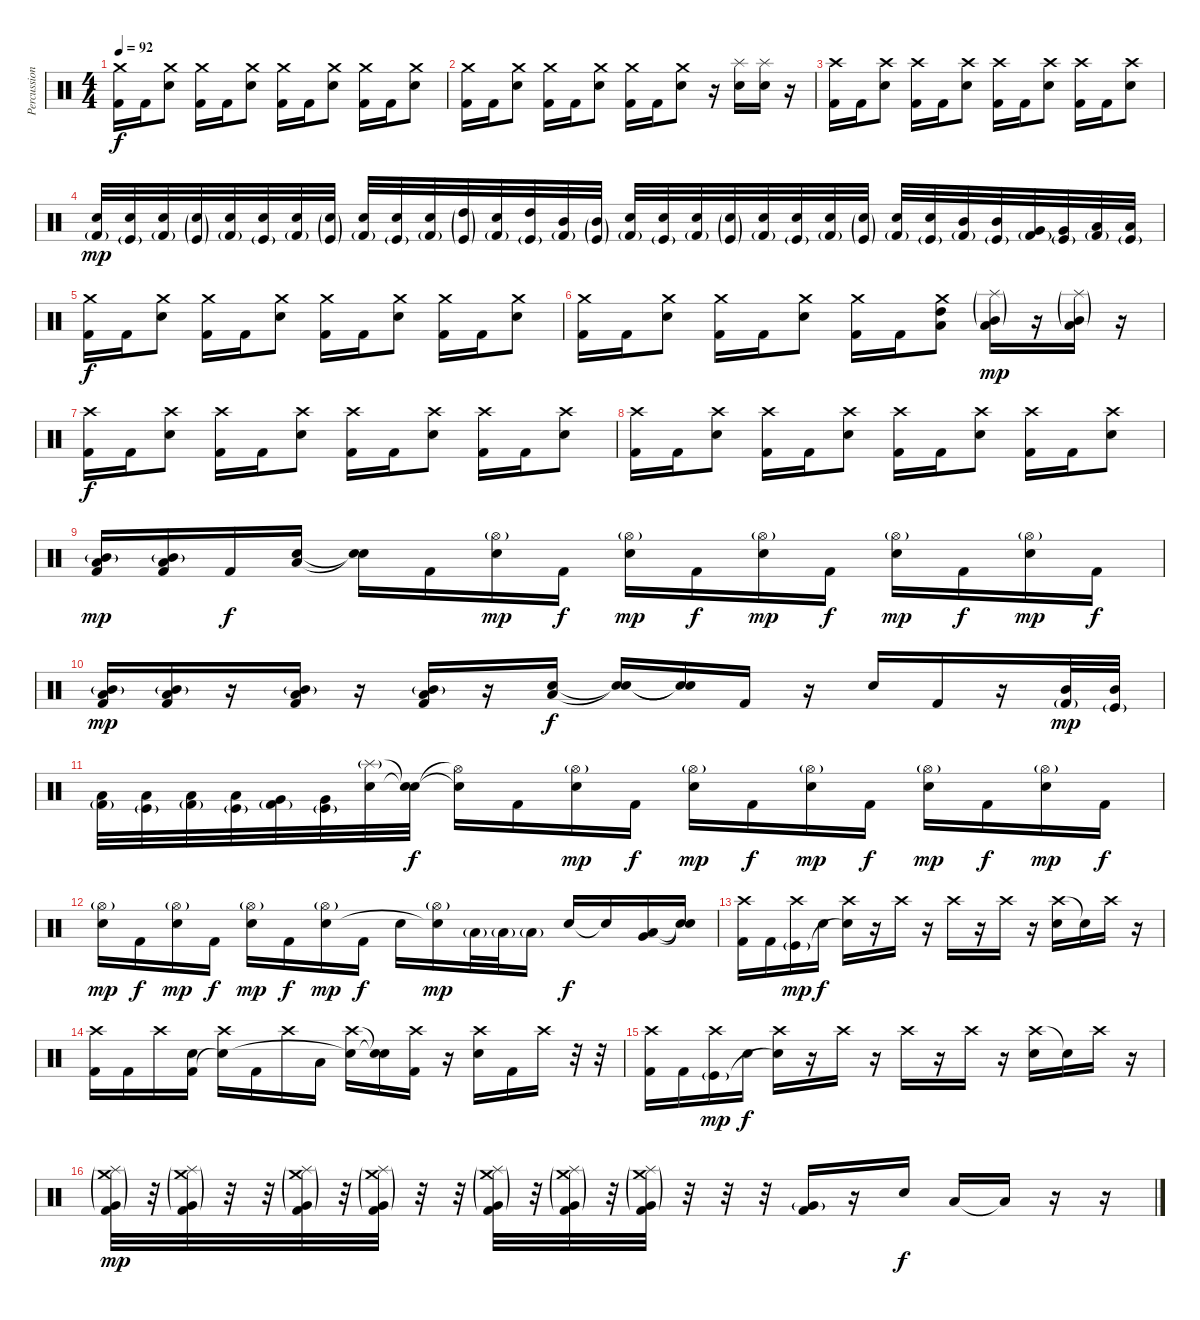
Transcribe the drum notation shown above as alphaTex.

\track ("Percussion" "Percussion") {instrument percussion}
\staff {score}
\articulation defaults
\ts (4 4)
\tempo 92
\clef neutral
\ks c
("Crash medium (hit)" "Kick (hit) 2").16{dy f} "Kick (hit) 2".16 ("Crash medium (hit)" "Snare (hit) 2").8 ("Crash medium (hit)" "Kick (hit) 2").16 "Kick (hit) 2".16 ("Crash medium (hit)" "Snare (hit) 2").8 ("Crash medium (hit)" "Kick (hit) 2").16 "Kick (hit) 2".16 ("Crash medium (hit)" "Snare (hit) 2").8 ("Crash medium (hit)" "Kick (hit) 2").16 "Kick (hit) 2".16 ("Crash medium (hit)" "Snare (hit) 2").8 |
("Crash medium (hit)" "Kick (hit) 2").16 "Kick (hit) 2".16 ("Crash medium (hit)" "Snare (hit) 2").8 ("Crash medium (hit)" "Kick (hit) 2").16 "Kick (hit) 2".16 ("Crash medium (hit)" "Snare (hit) 2").8 ("Crash medium (hit)" "Kick (hit) 2").16 "Kick (hit) 2".16 ("Crash medium (hit)" "Snare (hit) 2").8 r.16 ("Splash (hit)" "Snare (hit) 2").16 ("Splash (hit)" "Snare (hit) 2").16 r.16 |
("Crash high (hit)" "Kick (hit) 2").16 "Kick (hit) 2".16 ("Crash high (hit)" "Snare (hit) 2").8 ("Crash high (hit)" "Kick (hit) 2").16 "Kick (hit) 2".16 ("Crash high (hit)" "Snare (hit) 2").8 ("Crash high (hit)" "Kick (hit) 2").16 "Kick (hit) 2".16 ("Crash high (hit)" "Snare (hit) 2").8 ("Crash high (hit)" "Kick (hit) 2").16 "Kick (hit) 2".16 ("Crash high (hit)" "Snare (hit) 2").8 |
("Snare (hit) 2" "Kick (hit) 2"{g}).32{dy mp} ("Snare (hit) 2" "Kick (hit)"{g}).32 ("Snare (hit) 2" "Kick (hit) 2"{g}).32 ("Snare (hit) 2"{g} "Kick (hit)"{g}).32 ("Snare (hit) 2" "Kick (hit) 2"{g}).32 ("Snare (hit) 2" "Kick (hit)"{g}).32 ("Snare (hit) 2" "Kick (hit) 2"{g}).32 ("Snare (hit) 2"{g} "Kick (hit)"{g}).32 ("Snare (hit) 2" "Kick (hit) 2"{g}).32 ("Snare (hit) 2" "Kick (hit)"{g}).32 ("Snare (hit) 2" "Kick (hit) 2"{g}).32 ("High Tom (hit)"{g} "Kick (hit)"{g}).32 ("Snare (hit) 2" "Kick (hit) 2"{g}).32 ("High Tom (hit)" "Kick (hit)"{g}).32 ("Mid Tom (hit)" "Kick (hit) 2"{g}).32 ("Mid Tom (hit)"{g} "Kick (hit)"{g}).32 ("Snare (hit) 2" "Kick (hit) 2"{g}).32 ("Snare (hit) 2" "Kick (hit)"{g}).32 ("Snare (hit) 2" "Kick (hit) 2"{g}).32 ("Snare (hit) 2"{g} "Kick (hit)"{g}).32 ("Snare (hit) 2" "Kick (hit) 2"{g}).32 ("Snare (hit) 2" "Kick (hit)"{g}).32 ("Snare (hit) 2" "Kick (hit) 2"{g}).32 ("Snare (hit) 2"{g} "Kick (hit)"{g}).32 ("Snare (hit) 2" "Kick (hit) 2"{g}).32 ("Snare (hit) 2" "Kick (hit)"{g}).32 ("Mid Tom (hit)" "Kick (hit) 2"{g}).32 ("Mid Tom (hit)" "Kick (hit)"{g}).32 ("Very Low Tom (hit)" "Kick (hit) 2"{g}).32 ("Very Low Tom (hit)" "Kick (hit)"{g}).32 ("Low Floor Tom (hit)" "Kick (hit) 2"{g}).32 ("Low Floor Tom (hit)" "Kick (hit)"{g}).32 |
("Crash medium (hit)" "Kick (hit) 2").16{dy f} "Kick (hit) 2".16 ("Crash medium (hit)" "Snare (hit) 2").8 ("Crash medium (hit)" "Kick (hit) 2").16 "Kick (hit) 2".16 ("Crash medium (hit)" "Snare (hit) 2").8 ("Crash medium (hit)" "Kick (hit) 2").16 "Kick (hit) 2".16 ("Crash medium (hit)" "Snare (hit) 2").8 ("Crash medium (hit)" "Kick (hit) 2").16 "Kick (hit) 2".16 ("Crash medium (hit)" "Snare (hit) 2").8 |
("Crash medium (hit)" "Kick (hit) 2").16 "Kick (hit) 2".16 ("Crash medium (hit)" "Snare (hit) 2").8 ("Crash medium (hit)" "Kick (hit) 2").16 "Kick (hit) 2".16 ("Crash medium (hit)" "Snare (hit) 2").8 ("Crash medium (hit)" "Kick (hit) 2").16 "Kick (hit) 2".16 ("Crash medium (hit)" "High Tom (hit)" "Low Tom (hit)").8 ("Splash (hit)"{g} "Mid Tom (hit)"{g} "Low Tom (hit)").16{dy mp} r.16 ("Splash (hit)"{g} "Mid Tom (hit)"{g} "Low Tom (hit)").16 r.16 |
("Crash high (hit)" "Kick (hit) 2").16{dy f} "Kick (hit) 2".16 ("Crash high (hit)" "Snare (hit) 2").8 ("Crash high (hit)" "Kick (hit) 2").16 "Kick (hit) 2".16 ("Crash high (hit)" "Snare (hit) 2").8 ("Crash high (hit)" "Kick (hit) 2").16 "Kick (hit) 2".16 ("Crash high (hit)" "Snare (hit) 2").8 ("Crash high (hit)" "Kick (hit) 2").16 "Kick (hit) 2".16 ("Crash high (hit)" "Snare (hit) 2").8 |
("Crash high (hit)" "Kick (hit) 2").16 "Kick (hit) 2".16 ("Crash high (hit)" "Snare (hit) 2").8 ("Crash high (hit)" "Kick (hit) 2").16 "Kick (hit) 2".16 ("Crash high (hit)" "Snare (hit) 2").8 ("Crash high (hit)" "Kick (hit) 2").16 "Kick (hit) 2".16 ("Crash high (hit)" "Snare (hit) 2").8 ("Crash high (hit)" "Kick (hit) 2").16 "Kick (hit) 2".16 ("Crash high (hit)" "Snare (hit) 2").8 |
("Mid Tom (hit)"{g} "Low Tom (hit)" "Kick (hit) 2").16{dy mp} ("Mid Tom (hit)"{g} "Low Tom (hit)" "Kick (hit) 2").16 "Kick (hit) 2".16{dy f} ("Low Tom (hit)" "Snare (hit) 2").16 ("Snare (hit)"{t} "Snare (hit)"{t}).16 "Kick (hit) 2".16 ("Hi-Hat (open)"{g} "Snare (hit) 2").16{dy mp} "Kick (hit) 2".16{dy f} ("Hi-Hat (open)"{g} "Snare (hit) 2").16{dy mp} "Kick (hit) 2".16{dy f} ("Hi-Hat (open)"{g} "Snare (hit) 2").16{dy mp} "Kick (hit) 2".16{dy f} ("Hi-Hat (open)"{g} "Snare (hit) 2").16{dy mp} "Kick (hit) 2".16{dy f} ("Hi-Hat (open)"{g} "Snare (hit) 2").16{dy mp} "Kick (hit) 2".16{dy f} |
("Mid Tom (hit)"{g} "Low Tom (hit)" "Kick (hit) 2").16{dy mp} ("Mid Tom (hit)"{g} "Low Tom (hit)" "Kick (hit) 2").16 r.16 ("Mid Tom (hit)"{g} "Low Tom (hit)" "Kick (hit) 2").16 r.16 ("Mid Tom (hit)"{g} "Low Tom (hit)" "Kick (hit) 2").16 r.16 ("Low Tom (hit)" "Snare (hit) 2").16{dy f} ("Snare (hit)"{t} "Snare (hit)"{t}).16 ("Snare (hit)"{t} "Snare (hit)"{t}).16 "Kick (hit) 2".16 r.16 "Snare (hit) 2".16 "Kick (hit) 2".16 r.16 ("Mid Tom (hit)" "Kick (hit) 2"{g}).32{dy mp} ("Mid Tom (hit)" "Kick (hit)"{g}).32 |
("Low Tom (hit)" "Kick (hit) 2"{g}).32 ("Low Tom (hit)" "Kick (hit)"{g}).32 ("Low Tom (hit)" "Kick (hit) 2"{g}).32 ("Low Tom (hit)" "Kick (hit)"{g}).32 ("Very Low Tom (hit)" "Kick (hit) 2"{g}).32 ("Very Low Tom (hit)" "Kick (hit)"{g}).32 ("Splash (hit)"{g} "Snare (hit) 2").32 ("Snare (hit)"{t} "Snare (hit)"{t}).32{dy f} ("Hi-Hat (open)"{t} "Snare (hit) 2"{t}).16 "Kick (hit) 2".16 ("Hi-Hat (open)"{g} "Snare (hit) 2").16{dy mp} "Kick (hit) 2".16{dy f} ("Hi-Hat (open)"{g} "Snare (hit) 2").16{dy mp} "Kick (hit) 2".16{dy f} ("Hi-Hat (open)"{g} "Snare (hit) 2").16{dy mp} "Kick (hit) 2".16{dy f} ("Hi-Hat (open)"{g} "Snare (hit) 2").16{dy mp} "Kick (hit) 2".16{dy f} ("Hi-Hat (open)"{g} "Snare (hit) 2").16{dy mp} "Kick (hit) 2".16{dy f} |
("Hi-Hat (open)"{g} "Snare (hit) 2").16{dy mp} "Kick (hit) 2".16{dy f} ("Hi-Hat (open)"{g} "Snare (hit) 2").16{dy mp} "Kick (hit) 2".16{dy f} ("Hi-Hat (open)"{g} "Snare (hit) 2").16{dy mp} "Kick (hit) 2".16{dy f} ("Hi-Hat (open)"{g} "Snare (hit) 2").16{dy mp} "Kick (hit) 2".16{dy f} "Snare (hit) 2".16 ("Hi-Hat (open)"{g} "Snare (hit)"{t}).16{dy mp} "Low Tom (hit)"{g}.32 "Low Tom (hit)"{g}.32 "Low Tom (hit)"{g}.16 "Snare (hit) 2".16{dy f} "Snare (hit)"{t}.16 ("Low Tom (hit)" "Very Low Tom (hit)").16 ("Snare (hit)"{t} "Snare (hit)"{t}).16 |
("Crash high (hit)" "Kick (hit) 2").16 "Kick (hit) 2".16 ("Crash high (hit)" "Kick (hit)"{g}).16{dy mp} "Snare (hit) 2".16{dy f} ("Crash high (hit)" "Snare (hit)"{t}).16 r.16 "Crash high (hit)".16 r.16 "Crash high (hit)".16 r.16 "Crash high (hit)".16 r.16 ("Crash high (hit)" "Snare (hit) 2").16 "Snare (hit)"{t}.16 "Crash high (hit)".16 r.16 |
("Crash high (hit)" "Kick (hit) 2").16 "Kick (hit) 2".16 "Crash high (hit)".16 ("Snare (hit) 2" "Kick (hit) 2").16 ("Crash high (hit)" "Snare (hit)"{t}).16 "Kick (hit) 2".16 "Crash high (hit)".16 "Low Tom (hit)".16 ("Crash high (hit)" "Snare (hit)"{t}).16 ("Snare (hit)"{t} "Snare (hit)"{t}).16 ("Crash high (hit)" "Kick (hit) 2").16 r.16 ("Crash high (hit)" "Snare (hit) 2").16 "Kick (hit) 2".16 "Crash high (hit)".16 r.32 r.32 |
("Crash high (hit)" "Kick (hit) 2").16 "Kick (hit) 2".16 ("Crash high (hit)" "Kick (hit)"{g}).16{dy mp} "Snare (hit) 2".16{dy f} ("Crash high (hit)" "Snare (hit)"{t}).16 r.16 "Crash high (hit)".16 r.16 "Crash high (hit)".16 r.16 "Crash high (hit)".16 r.16 ("Crash high (hit)" "Snare (hit) 2").16 "Snare (hit)"{t}.16 "Crash high (hit)".16 r.16 |
("Crash medium (hit)"{g} "Splash (hit)"{g} "Very Low Tom (hit)"{g} "Kick (hit) 2").32{dy mp} r.32 ("Crash medium (hit)"{g} "Splash (hit)"{g} "Very Low Tom (hit)"{g} "Kick (hit) 2").32 r.32 r.32 ("Crash medium (hit)"{g} "Splash (hit)"{g} "Very Low Tom (hit)"{g} "Kick (hit) 2").32 r.32 ("Crash medium (hit)"{g} "Splash (hit)"{g} "Very Low Tom (hit)"{g} "Kick (hit) 2").32 r.32 r.32 ("Crash medium (hit)"{g} "Splash (hit)"{g} "Very Low Tom (hit)"{g} "Kick (hit) 2").32 r.32 ("Crash medium (hit)"{g} "Splash (hit)"{g} "Very Low Tom (hit)"{g} "Kick (hit) 2").32 r.32 ("Crash medium (hit)"{g} "Splash (hit)"{g} "Very Low Tom (hit)"{g} "Kick (hit) 2").32 r.32 r.32 r.32 ("Very Low Tom (hit)"{g} "Kick (hit) 2").16 r.16 "Snare (hit) 2".16{dy f} "Low Tom (hit)".16 "Low Tom (hit)"{t}.16 r.16 r.16
